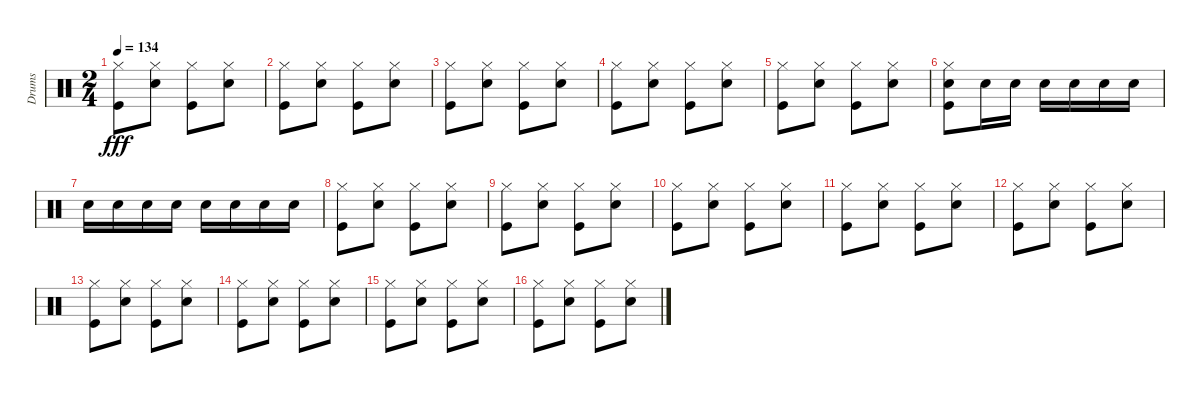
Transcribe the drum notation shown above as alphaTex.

\track ("Drums" "Drums") {instrument percussion}
\staff {score}
\articulation defaults
\ts (2 4)
\tempo 134
\clef neutral
\ks c
("Hi-Hat (closed)" "Kick (hit)").8{dy fff} ("Hi-Hat (closed)" "Electric Snare (hit)").8 ("Hi-Hat (closed)" "Kick (hit)").8 ("Hi-Hat (closed)" "Electric Snare (hit)").8 |
("Hi-Hat (closed)" "Kick (hit)").8 ("Hi-Hat (closed)" "Electric Snare (hit)").8 ("Hi-Hat (closed)" "Kick (hit)").8 ("Hi-Hat (closed)" "Electric Snare (hit)").8 |
("Hi-Hat (closed)" "Kick (hit)").8 ("Hi-Hat (closed)" "Electric Snare (hit)").8 ("Hi-Hat (closed)" "Kick (hit)").8 ("Hi-Hat (closed)" "Electric Snare (hit)").8 |
("Hi-Hat (closed)" "Kick (hit)").8 ("Hi-Hat (closed)" "Electric Snare (hit)").8 ("Hi-Hat (closed)" "Kick (hit)").8 ("Hi-Hat (closed)" "Electric Snare (hit)").8 |
("Hi-Hat (closed)" "Kick (hit)").8 ("Hi-Hat (closed)" "Electric Snare (hit)").8 ("Hi-Hat (closed)" "Kick (hit)").8 ("Hi-Hat (closed)" "Electric Snare (hit)").8 |
("Hi-Hat (closed)" "Electric Snare (hit)" "Kick (hit)").8 "Electric Snare (hit)".16 "Electric Snare (hit)".16 "Electric Snare (hit)".16 "Electric Snare (hit)".16 "Electric Snare (hit)".16 "Electric Snare (hit)".16 |
"Electric Snare (hit)".16 "Electric Snare (hit)".16 "Electric Snare (hit)".16 "Electric Snare (hit)".16 "Electric Snare (hit)".16 "Electric Snare (hit)".16 "Electric Snare (hit)".16 "Electric Snare (hit)".16 |
("Hi-Hat (closed)" "Kick (hit)").8 ("Hi-Hat (closed)" "Electric Snare (hit)").8 ("Hi-Hat (closed)" "Kick (hit)").8 ("Hi-Hat (closed)" "Electric Snare (hit)").8 |
("Hi-Hat (closed)" "Kick (hit)").8 ("Hi-Hat (closed)" "Electric Snare (hit)").8 ("Hi-Hat (closed)" "Kick (hit)").8 ("Hi-Hat (closed)" "Electric Snare (hit)").8 |
("Hi-Hat (closed)" "Kick (hit)").8 ("Hi-Hat (closed)" "Electric Snare (hit)").8 ("Hi-Hat (closed)" "Kick (hit)").8 ("Hi-Hat (closed)" "Electric Snare (hit)").8 |
("Hi-Hat (closed)" "Kick (hit)").8 ("Hi-Hat (closed)" "Electric Snare (hit)").8 ("Hi-Hat (closed)" "Kick (hit)").8 ("Hi-Hat (closed)" "Electric Snare (hit)").8 |
("Hi-Hat (closed)" "Kick (hit)").8 ("Hi-Hat (closed)" "Electric Snare (hit)").8 ("Hi-Hat (closed)" "Kick (hit)").8 ("Hi-Hat (closed)" "Electric Snare (hit)").8 |
("Hi-Hat (closed)" "Kick (hit)").8 ("Hi-Hat (closed)" "Electric Snare (hit)").8 ("Hi-Hat (closed)" "Kick (hit)").8 ("Hi-Hat (closed)" "Electric Snare (hit)").8 |
("Hi-Hat (closed)" "Kick (hit)").8 ("Hi-Hat (closed)" "Electric Snare (hit)").8 ("Hi-Hat (closed)" "Kick (hit)").8 ("Hi-Hat (closed)" "Electric Snare (hit)").8 |
("Hi-Hat (closed)" "Kick (hit)").8 ("Hi-Hat (closed)" "Electric Snare (hit)").8 ("Hi-Hat (closed)" "Kick (hit)").8 ("Hi-Hat (closed)" "Electric Snare (hit)").8 |
("Hi-Hat (closed)" "Kick (hit)").8 ("Hi-Hat (closed)" "Electric Snare (hit)").8 ("Hi-Hat (closed)" "Kick (hit)").8 ("Hi-Hat (closed)" "Electric Snare (hit)").8
